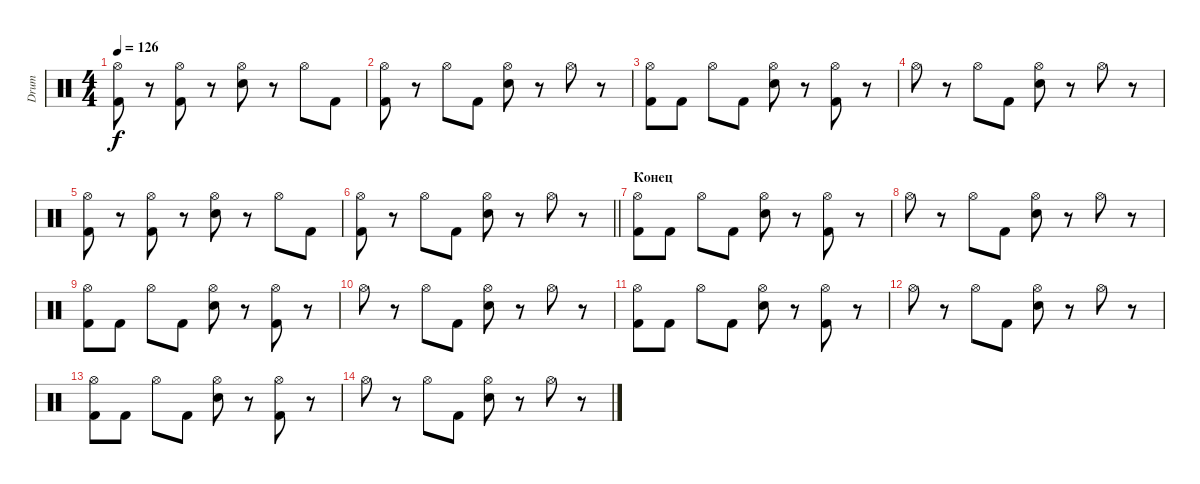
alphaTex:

\track ("Drum" "Drum") {instrument percussion}
\staff {score}
\articulation defaults
\ts (4 4)
\tempo 126
\clef neutral
\ks c
("Hi-Hat (open)" "Kick (hit) 2").8{dy f} r.8 ("Hi-Hat (open)" "Kick (hit) 2").8 r.8 ("Hi-Hat (open)" "Snare (hit) 2").8 r.8 "Hi-Hat (open)".8 "Kick (hit) 2".8 |
("Hi-Hat (open)" "Kick (hit) 2").8 r.8 "Hi-Hat (open)".8 "Kick (hit) 2".8 ("Hi-Hat (open)" "Snare (hit) 2").8 r.8 "Hi-Hat (open)".8 r.8 |
("Hi-Hat (open)" "Kick (hit) 2").8 "Kick (hit) 2".8 "Hi-Hat (open)".8 "Kick (hit) 2".8 ("Hi-Hat (open)" "Snare (hit) 2").8 r.8 ("Kick (hit) 2" "Hi-Hat (open)").8 r.8 |
"Hi-Hat (open)".8 r.8 "Hi-Hat (open)".8 "Kick (hit) 2".8 ("Hi-Hat (open)" "Snare (hit) 2").8 r.8 "Hi-Hat (open)".8 r.8 |
("Hi-Hat (open)" "Kick (hit) 2").8 r.8 ("Hi-Hat (open)" "Kick (hit) 2").8 r.8 ("Hi-Hat (open)" "Snare (hit) 2").8 r.8 "Hi-Hat (open)".8 "Kick (hit) 2".8 |
\barLineRight lightlight
("Hi-Hat (open)" "Kick (hit) 2").8 r.8 "Hi-Hat (open)".8 "Kick (hit) 2".8 ("Hi-Hat (open)" "Snare (hit) 2").8 r.8 "Hi-Hat (open)".8 r.8 |
\section ("" "Конец")
("Hi-Hat (open)" "Kick (hit) 2").8 "Kick (hit) 2".8 "Hi-Hat (open)".8 "Kick (hit) 2".8 ("Hi-Hat (open)" "Snare (hit) 2").8 r.8 ("Kick (hit) 2" "Hi-Hat (open)").8 r.8 |
"Hi-Hat (open)".8 r.8 "Hi-Hat (open)".8 "Kick (hit) 2".8 ("Hi-Hat (open)" "Snare (hit) 2").8 r.8 "Hi-Hat (open)".8 r.8 |
("Hi-Hat (open)" "Kick (hit) 2").8 "Kick (hit) 2".8 "Hi-Hat (open)".8 "Kick (hit) 2".8 ("Hi-Hat (open)" "Snare (hit) 2").8 r.8 ("Kick (hit) 2" "Hi-Hat (open)").8 r.8 |
"Hi-Hat (open)".8 r.8 "Hi-Hat (open)".8 "Kick (hit) 2".8 ("Hi-Hat (open)" "Snare (hit) 2").8 r.8 "Hi-Hat (open)".8 r.8 |
("Hi-Hat (open)" "Kick (hit) 2").8 "Kick (hit) 2".8 "Hi-Hat (open)".8 "Kick (hit) 2".8 ("Hi-Hat (open)" "Snare (hit) 2").8 r.8 ("Kick (hit) 2" "Hi-Hat (open)").8 r.8 |
"Hi-Hat (open)".8 r.8 "Hi-Hat (open)".8 "Kick (hit) 2".8 ("Hi-Hat (open)" "Snare (hit) 2").8 r.8 "Hi-Hat (open)".8 r.8 |
("Hi-Hat (open)" "Kick (hit) 2").8 "Kick (hit) 2".8 "Hi-Hat (open)".8 "Kick (hit) 2".8 ("Hi-Hat (open)" "Snare (hit) 2").8 r.8 ("Kick (hit) 2" "Hi-Hat (open)").8 r.8 |
"Hi-Hat (open)".8 r.8 "Hi-Hat (open)".8 "Kick (hit) 2".8 ("Hi-Hat (open)" "Snare (hit) 2").8 r.8 "Hi-Hat (open)".8 r.8
